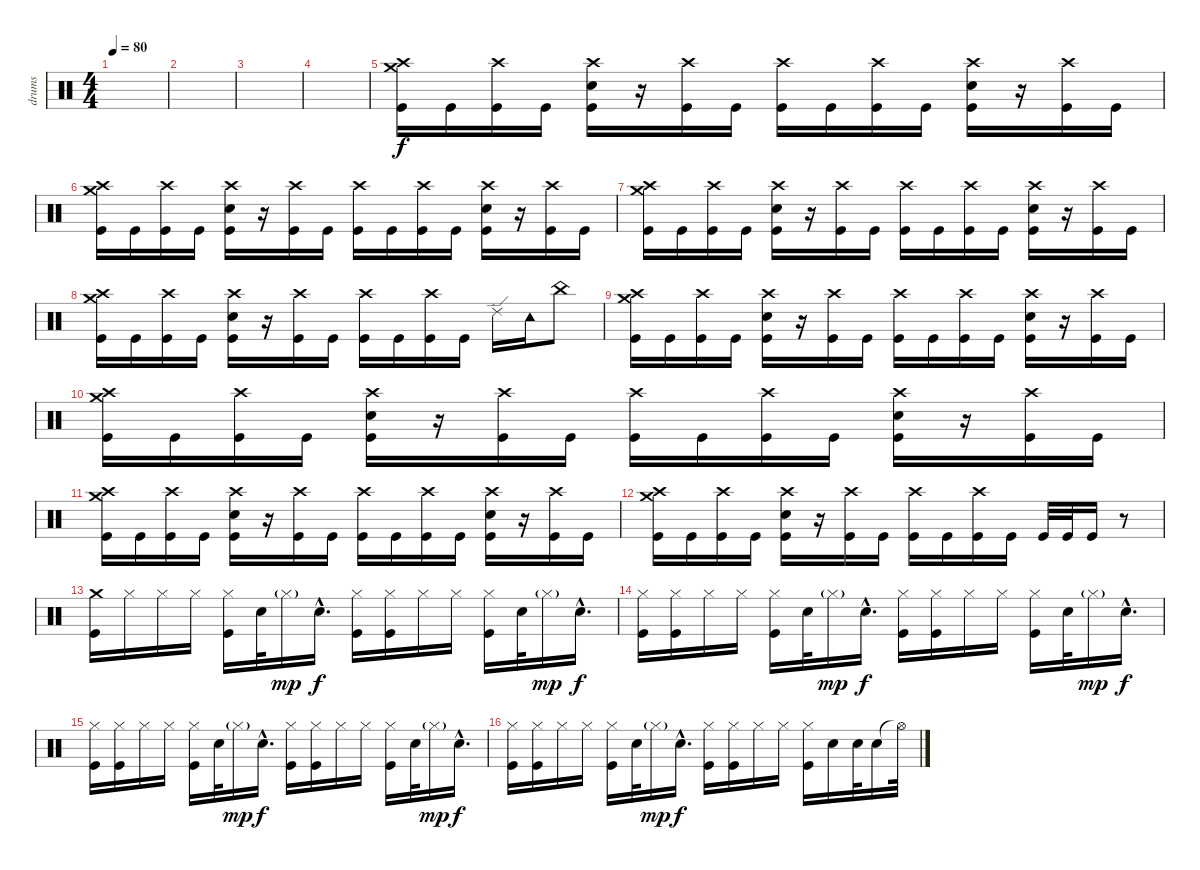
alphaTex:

\track ("drums" "drums") {instrument percussion}
\staff {score}
\articulation defaults
\ts (4 4)
\tempo 80
\clef neutral
\ks c
|
|
|
|
("Crash medium (hit)" "Crash high (hit)" "Kick (hit)").16 "Kick (hit)".16 ("Crash high (hit)" "Kick (hit)").16 "Kick (hit)".16 ("Crash high (hit)" "Snare (hit) 2" "Kick (hit)").16 r.16 ("Crash high (hit)" "Kick (hit)").16 "Kick (hit)".16 ("Crash high (hit)" "Kick (hit)").16 "Kick (hit)".16 ("Crash high (hit)" "Kick (hit)").16 "Kick (hit)".16 ("Crash high (hit)" "Snare (hit) 2" "Kick (hit)").16 r.16 ("Crash high (hit)" "Kick (hit)").16 "Kick (hit)".16 |
("Crash medium (hit)" "Crash high (hit)" "Kick (hit)").16 "Kick (hit)".16 ("Crash high (hit)" "Kick (hit)").16 "Kick (hit)".16 ("Crash high (hit)" "Snare (hit) 2" "Kick (hit)").16 r.16 ("Crash high (hit)" "Kick (hit)").16 "Kick (hit)".16 ("Crash high (hit)" "Kick (hit)").16 "Kick (hit)".16 ("Crash high (hit)" "Kick (hit)").16 "Kick (hit)".16 ("Crash high (hit)" "Snare (hit) 2" "Kick (hit)").16 r.16 ("Crash high (hit)" "Kick (hit)").16 "Kick (hit)".16 |
("Crash medium (hit)" "Crash high (hit)" "Kick (hit)").16 "Kick (hit)".16 ("Crash high (hit)" "Kick (hit)").16 "Kick (hit)".16 ("Crash high (hit)" "Snare (hit) 2" "Kick (hit)").16 r.16 ("Crash high (hit)" "Kick (hit)").16 "Kick (hit)".16 ("Crash high (hit)" "Kick (hit)").16 "Kick (hit)".16 ("Crash high (hit)" "Kick (hit)").16 "Kick (hit)".16 ("Crash high (hit)" "Snare (hit) 2" "Kick (hit)").16 r.16 ("Crash high (hit)" "Kick (hit)").16 "Kick (hit)".16 |
("Crash medium (hit)" "Crash high (hit)" "Kick (hit)").16 "Kick (hit)".16 ("Crash high (hit)" "Kick (hit)").16 "Kick (hit)".16 ("Crash high (hit)" "Snare (hit) 2" "Kick (hit)").16 r.16 ("Crash high (hit)" "Kick (hit)").16 "Kick (hit)".16 ("Crash high (hit)" "Kick (hit)").16 "Kick (hit)".16 ("Crash high (hit)" "Kick (hit)").16 "Kick (hit)".16 "Ride (edge) 2".16 "Tambourine (hit)".16 "China (hit)".8 |
("Crash medium (hit)" "Crash high (hit)" "Kick (hit)").16 "Kick (hit)".16 ("Crash high (hit)" "Kick (hit)").16 "Kick (hit)".16 ("Crash high (hit)" "Snare (hit) 2" "Kick (hit)").16 r.16 ("Crash high (hit)" "Kick (hit)").16 "Kick (hit)".16 ("Crash high (hit)" "Kick (hit)").16 "Kick (hit)".16 ("Crash high (hit)" "Kick (hit)").16 "Kick (hit)".16 ("Crash high (hit)" "Snare (hit) 2" "Kick (hit)").16 r.16 ("Crash high (hit)" "Kick (hit)").16 "Kick (hit)".16 |
("Crash medium (hit)" "Crash high (hit)" "Kick (hit)").16 "Kick (hit)".16 ("Crash high (hit)" "Kick (hit)").16 "Kick (hit)".16 ("Crash high (hit)" "Snare (hit) 2" "Kick (hit)").16 r.16 ("Crash high (hit)" "Kick (hit)").16 "Kick (hit)".16 ("Crash high (hit)" "Kick (hit)").16 "Kick (hit)".16 ("Crash high (hit)" "Kick (hit)").16 "Kick (hit)".16 ("Crash high (hit)" "Snare (hit) 2" "Kick (hit)").16 r.16 ("Crash high (hit)" "Kick (hit)").16 "Kick (hit)".16 |
("Crash medium (hit)" "Crash high (hit)" "Kick (hit)").16 "Kick (hit)".16 ("Crash high (hit)" "Kick (hit)").16 "Kick (hit)".16 ("Crash high (hit)" "Snare (hit) 2" "Kick (hit)").16 r.16 ("Crash high (hit)" "Kick (hit)").16 "Kick (hit)".16 ("Crash high (hit)" "Kick (hit)").16 "Kick (hit)".16 ("Crash high (hit)" "Kick (hit)").16 "Kick (hit)".16 ("Crash high (hit)" "Snare (hit) 2" "Kick (hit)").16 r.16 ("Crash high (hit)" "Kick (hit)").16 "Kick (hit)".16 |
("Crash medium (hit)" "Crash high (hit)" "Kick (hit)").16 "Kick (hit)".16 ("Crash high (hit)" "Kick (hit)").16 "Kick (hit)".16 ("Crash high (hit)" "Snare (hit) 2" "Kick (hit)").16 r.16 ("Crash high (hit)" "Kick (hit)").16 "Kick (hit)".16 ("Crash high (hit)" "Kick (hit)").16 "Kick (hit)".16 ("Crash high (hit)" "Kick (hit)").16 "Kick (hit)".16 "Kick (hit)".32 "Kick (hit)".32 "Kick (hit)".16 r.8 |
("Crash medium (hit)" "Kick (hit)").16 "Hi-Hat (closed)".16 "Hi-Hat (closed)".16 "Hi-Hat (closed)".16 ("Hi-Hat (closed)" "Kick (hit)").16 "Snare (hit) 2".32 "Hi-Hat (closed)"{g}.16{dy mp} "Snare (hit) 2"{hac}.16{d dy f} ("Hi-Hat (closed)" "Kick (hit)").16 ("Hi-Hat (closed)" "Kick (hit)").16 "Hi-Hat (closed)".16 "Hi-Hat (closed)".16 ("Hi-Hat (closed)" "Kick (hit)").16 "Snare (hit) 2".32 "Hi-Hat (closed)"{g}.16{dy mp} "Snare (hit) 2"{hac}.16{d dy f} |
("Hi-Hat (closed)" "Kick (hit)").16 ("Hi-Hat (closed)" "Kick (hit)").16 "Hi-Hat (closed)".16 "Hi-Hat (closed)".16 ("Hi-Hat (closed)" "Kick (hit)").16 "Snare (hit) 2".32 "Hi-Hat (closed)"{g}.16{dy mp} "Snare (hit) 2"{hac}.16{d dy f} ("Hi-Hat (closed)" "Kick (hit)").16 ("Hi-Hat (closed)" "Kick (hit)").16 "Hi-Hat (closed)".16 "Hi-Hat (closed)".16 ("Hi-Hat (closed)" "Kick (hit)").16 "Snare (hit) 2".32 "Hi-Hat (closed)"{g}.16{dy mp} "Snare (hit) 2"{hac}.16{d dy f} |
("Hi-Hat (closed)" "Kick (hit)").16 ("Hi-Hat (closed)" "Kick (hit)").16 "Hi-Hat (closed)".16 "Hi-Hat (closed)".16 ("Hi-Hat (closed)" "Kick (hit)").16 "Snare (hit) 2".32 "Hi-Hat (closed)"{g}.16{dy mp} "Snare (hit) 2"{hac}.16{d dy f} ("Hi-Hat (closed)" "Kick (hit)").16 ("Hi-Hat (closed)" "Kick (hit)").16 "Hi-Hat (closed)".16 "Hi-Hat (closed)".16 ("Hi-Hat (closed)" "Kick (hit)").16 "Snare (hit) 2".32 "Hi-Hat (closed)"{g}.16{dy mp} "Snare (hit) 2"{hac}.16{d dy f} |
("Hi-Hat (closed)" "Kick (hit)").16 ("Hi-Hat (closed)" "Kick (hit)").16 "Hi-Hat (closed)".16 "Hi-Hat (closed)".16 ("Hi-Hat (closed)" "Kick (hit)").16 "Snare (hit) 2".32 "Hi-Hat (closed)"{g}.16{dy mp} "Snare (hit) 2"{hac}.16{d dy f} ("Hi-Hat (closed)" "Kick (hit)").16 ("Hi-Hat (closed)" "Kick (hit)").16 "Hi-Hat (closed)".16 "Hi-Hat (closed)".16 ("Hi-Hat (closed)" "Kick (hit)").16 "Snare (hit) 2".16 "Snare (hit) 2".32 "Snare (hit) 2".16 "Hi-Hat (open)"{t}.32
